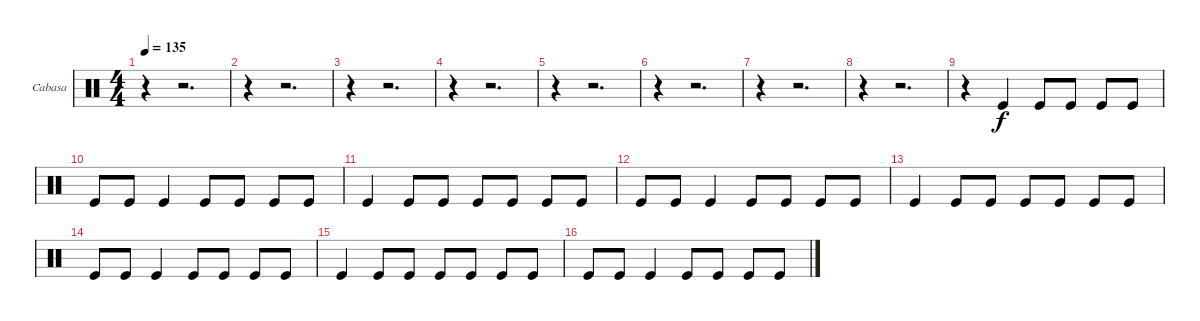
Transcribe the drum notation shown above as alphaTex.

\bracketExtendMode groupsimilarinstruments
\firstSystemTrackNameOrientation horizontal
\otherSystemsTrackNameOrientation horizontal
\track ("Cabasa" "Cabasa") {instrument percussion}
\staff {score}
\articulation defaults
\ts (4 4)
\beaming (8 2 2 2 2)
\tempo 135
\clef neutral
\ks c
r.4{dy f} r.2{d} |
r.4 r.2{d} |
r.4 r.2{d} |
r.4 r.2{d} |
r.4 r.2{d} |
r.4 r.2{d} |
r.4 r.2{d} |
r.4 r.2{d} |
r.4 "Kick (hit)".4 "Kick (hit)".8 "Kick (hit)".8 "Kick (hit)".8 "Kick (hit)".8 |
"Kick (hit)".8 "Kick (hit)".8 "Kick (hit)".4 "Kick (hit)".8 "Kick (hit)".8 "Kick (hit)".8 "Kick (hit)".8 |
"Kick (hit)".4 "Kick (hit)".8 "Kick (hit)".8 "Kick (hit)".8 "Kick (hit)".8 "Kick (hit)".8 "Kick (hit)".8 |
"Kick (hit)".8 "Kick (hit)".8 "Kick (hit)".4 "Kick (hit)".8 "Kick (hit)".8 "Kick (hit)".8 "Kick (hit)".8 |
"Kick (hit)".4 "Kick (hit)".8 "Kick (hit)".8 "Kick (hit)".8 "Kick (hit)".8 "Kick (hit)".8 "Kick (hit)".8 |
"Kick (hit)".8 "Kick (hit)".8 "Kick (hit)".4 "Kick (hit)".8 "Kick (hit)".8 "Kick (hit)".8 "Kick (hit)".8 |
"Kick (hit)".4 "Kick (hit)".8 "Kick (hit)".8 "Kick (hit)".8 "Kick (hit)".8 "Kick (hit)".8 "Kick (hit)".8 |
"Kick (hit)".8 "Kick (hit)".8 "Kick (hit)".4 "Kick (hit)".8 "Kick (hit)".8 "Kick (hit)".8 "Kick (hit)".8
